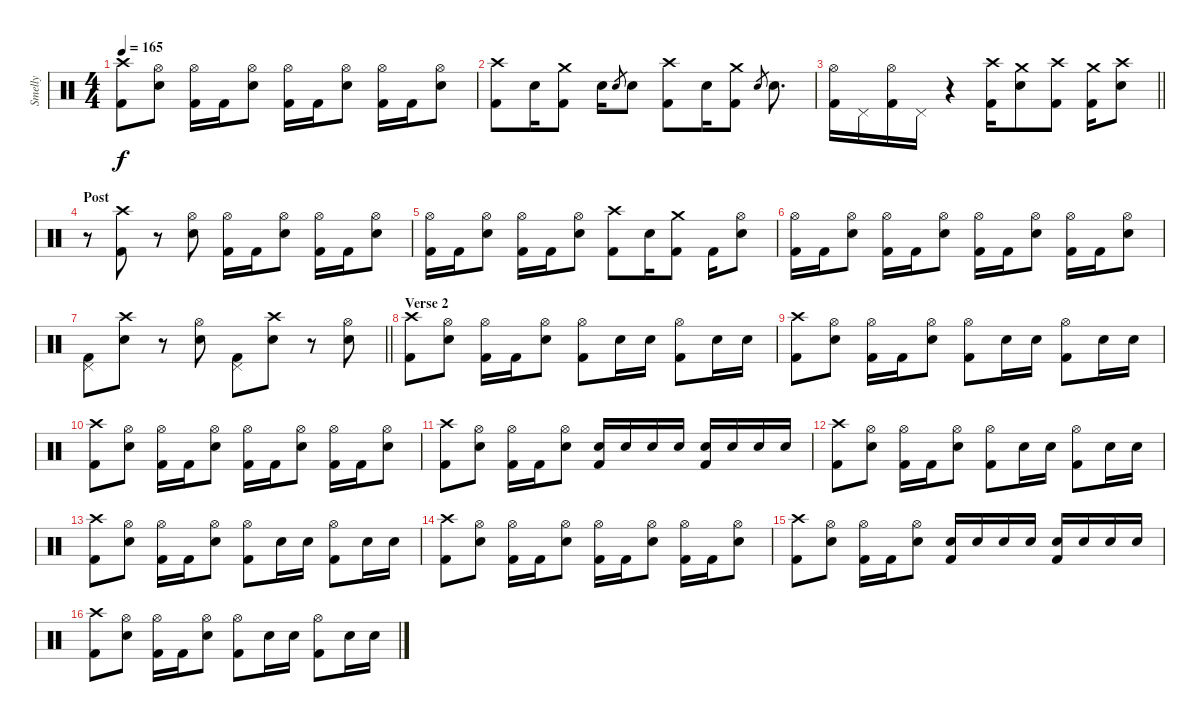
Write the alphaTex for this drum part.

\track ("Smelly" "Smelly") {instrument percussion}
\staff {score}
\articulation defaults
\ts (4 4)
\tempo 165
\clef neutral
\ks c
("Crash high (hit)" "Kick (hit) 2").8{dy f} ("Hi-Hat (open)" "Electric Snare (hit)").8 ("Hi-Hat (open)" "Kick (hit) 2").16 "Kick (hit) 2".16 ("Hi-Hat (open)" "Electric Snare (hit)").8 ("Hi-Hat (open)" "Kick (hit) 2").16 "Kick (hit) 2".16 ("Hi-Hat (open)" "Electric Snare (hit)").8 ("Hi-Hat (open)" "Kick (hit) 2").16 "Kick (hit) 2".16 ("Hi-Hat (open)" "Electric Snare (hit)").8 |
("Crash high (hit)" "Kick (hit) 2").8 "Electric Snare (hit)".16 ("Crash medium (hit)" "Kick (hit) 2").8 "Electric Snare (hit)".16 "Electric Snare (hit)".8{gr} "Electric Snare (hit)".8 ("Crash high (hit)" "Kick (hit) 2").8 "Electric Snare (hit)".16 ("Crash medium (hit)" "Kick (hit) 2").8 "Electric Snare (hit)".8{gr} "Electric Snare (hit)".8{d} |
\barLineRight lightlight
("Hi-Hat (open)" "Kick (hit) 2").16 "Pedal Hi-Hat (hit)".16 ("Hi-Hat (open)" "Kick (hit) 2").16 "Pedal Hi-Hat (hit)".16 r.4 ("Crash high (hit)" "Kick (hit) 2").16 ("Crash medium (hit)" "Electric Snare (hit)").8 ("Crash high (hit)" "Kick (hit) 2").8 ("Crash medium (hit)" "Kick (hit) 2").16 ("Crash high (hit)" "Electric Snare (hit)").8 |
\section ("" "Post")
r.8 ("Crash high (hit)" "Kick (hit) 2").8 r.8 ("Hi-Hat (open)" "Electric Snare (hit)").8 ("Hi-Hat (open)" "Kick (hit) 2").16 "Kick (hit) 2".16 ("Hi-Hat (open)" "Electric Snare (hit)").8 ("Hi-Hat (open)" "Kick (hit) 2").16 "Kick (hit) 2".16 ("Hi-Hat (open)" "Electric Snare (hit)").8 |
("Hi-Hat (open)" "Kick (hit) 2").16 "Kick (hit) 2".16 ("Hi-Hat (open)" "Electric Snare (hit)").8 ("Hi-Hat (open)" "Kick (hit) 2").16 "Kick (hit) 2".16 ("Hi-Hat (open)" "Electric Snare (hit)").8 ("Crash high (hit)" "Kick (hit) 2").8 "Electric Snare (hit)".16 ("Crash medium (hit)" "Kick (hit) 2").8 "Kick (hit) 2".16 ("Hi-Hat (open)" "Electric Snare (hit)").8 |
("Hi-Hat (open)" "Kick (hit) 2").16 "Kick (hit) 2".16 ("Hi-Hat (open)" "Electric Snare (hit)").8 ("Hi-Hat (open)" "Kick (hit) 2").16 "Kick (hit) 2".16 ("Hi-Hat (open)" "Electric Snare (hit)").8 ("Hi-Hat (open)" "Kick (hit) 2").16 "Kick (hit) 2".16 ("Hi-Hat (open)" "Electric Snare (hit)").8 ("Hi-Hat (open)" "Kick (hit) 2").16 "Kick (hit) 2".16 ("Hi-Hat (open)" "Electric Snare (hit)").8 |
\barLineRight lightlight
("Pedal Hi-Hat (hit)" "Kick (hit) 2").8 ("Crash high (hit)" "Electric Snare (hit)").8 r.8 ("Hi-Hat (open)" "Electric Snare (hit)").8 ("Pedal Hi-Hat (hit)" "Kick (hit) 2").8 ("Crash high (hit)" "Electric Snare (hit)").8 r.8 ("Hi-Hat (open)" "Electric Snare (hit)").8 |
\section ("" "Verse 2")
("Crash high (hit)" "Kick (hit) 2").8 ("Hi-Hat (open)" "Electric Snare (hit)").8 ("Hi-Hat (open)" "Kick (hit) 2").16 "Kick (hit) 2".16 ("Hi-Hat (open)" "Electric Snare (hit)").8 ("Hi-Hat (open)" "Kick (hit) 2").8 "Electric Snare (hit)".16 "Electric Snare (hit)".16 ("Hi-Hat (open)" "Kick (hit) 2").8 "Electric Snare (hit)".16 "Electric Snare (hit)".16 |
("Crash high (hit)" "Kick (hit) 2").8 ("Hi-Hat (open)" "Electric Snare (hit)").8 ("Hi-Hat (open)" "Kick (hit) 2").16 "Kick (hit) 2".16 ("Hi-Hat (open)" "Electric Snare (hit)").8 ("Hi-Hat (open)" "Kick (hit) 2").8 "Electric Snare (hit)".16 "Electric Snare (hit)".16 ("Hi-Hat (open)" "Kick (hit) 2").8 "Electric Snare (hit)".16 "Electric Snare (hit)".16 |
("Crash high (hit)" "Kick (hit) 2").8 ("Hi-Hat (open)" "Electric Snare (hit)").8 ("Hi-Hat (open)" "Kick (hit) 2").16 "Kick (hit) 2".16 ("Hi-Hat (open)" "Electric Snare (hit)").8 ("Hi-Hat (open)" "Kick (hit) 2").16 "Kick (hit) 2".16 ("Hi-Hat (open)" "Electric Snare (hit)").8 ("Hi-Hat (open)" "Kick (hit) 2").16 "Kick (hit) 2".16 ("Hi-Hat (open)" "Electric Snare (hit)").8 |
("Crash high (hit)" "Kick (hit) 2").8 ("Hi-Hat (open)" "Electric Snare (hit)").8 ("Hi-Hat (open)" "Kick (hit) 2").16 "Kick (hit) 2".16 ("Hi-Hat (open)" "Electric Snare (hit)").8 ("Electric Snare (hit)" "Kick (hit) 2").16 "Electric Snare (hit)".16 "Electric Snare (hit)".16 "Electric Snare (hit)".16 ("Electric Snare (hit)" "Kick (hit) 2").16 "Electric Snare (hit)".16 "Electric Snare (hit)".16 "Electric Snare (hit)".16 |
("Crash high (hit)" "Kick (hit) 2").8 ("Hi-Hat (open)" "Electric Snare (hit)").8 ("Hi-Hat (open)" "Kick (hit) 2").16 "Kick (hit) 2".16 ("Hi-Hat (open)" "Electric Snare (hit)").8 ("Hi-Hat (open)" "Kick (hit) 2").8 "Electric Snare (hit)".16 "Electric Snare (hit)".16 ("Hi-Hat (open)" "Kick (hit) 2").8 "Electric Snare (hit)".16 "Electric Snare (hit)".16 |
("Crash high (hit)" "Kick (hit) 2").8 ("Hi-Hat (open)" "Electric Snare (hit)").8 ("Hi-Hat (open)" "Kick (hit) 2").16 "Kick (hit) 2".16 ("Hi-Hat (open)" "Electric Snare (hit)").8 ("Hi-Hat (open)" "Kick (hit) 2").8 "Electric Snare (hit)".16 "Electric Snare (hit)".16 ("Hi-Hat (open)" "Kick (hit) 2").8 "Electric Snare (hit)".16 "Electric Snare (hit)".16 |
("Crash high (hit)" "Kick (hit) 2").8 ("Hi-Hat (open)" "Electric Snare (hit)").8 ("Hi-Hat (open)" "Kick (hit) 2").16 "Kick (hit) 2".16 ("Hi-Hat (open)" "Electric Snare (hit)").8 ("Hi-Hat (open)" "Kick (hit) 2").16 "Kick (hit) 2".16 ("Hi-Hat (open)" "Electric Snare (hit)").8 ("Hi-Hat (open)" "Kick (hit) 2").16 "Kick (hit) 2".16 ("Hi-Hat (open)" "Electric Snare (hit)").8 |
("Crash high (hit)" "Kick (hit) 2").8 ("Hi-Hat (open)" "Electric Snare (hit)").8 ("Hi-Hat (open)" "Kick (hit) 2").16 "Kick (hit) 2".16 ("Hi-Hat (open)" "Electric Snare (hit)").8 ("Electric Snare (hit)" "Kick (hit) 2").16 "Electric Snare (hit)".16 "Electric Snare (hit)".16 "Electric Snare (hit)".16 ("Electric Snare (hit)" "Kick (hit) 2").16 "Electric Snare (hit)".16 "Electric Snare (hit)".16 "Electric Snare (hit)".16 |
("Crash high (hit)" "Kick (hit) 2").8 ("Hi-Hat (open)" "Electric Snare (hit)").8 ("Hi-Hat (open)" "Kick (hit) 2").16 "Kick (hit) 2".16 ("Hi-Hat (open)" "Electric Snare (hit)").8 ("Hi-Hat (open)" "Kick (hit) 2").8 "Electric Snare (hit)".16 "Electric Snare (hit)".16 ("Hi-Hat (open)" "Kick (hit) 2").8 "Electric Snare (hit)".16 "Electric Snare (hit)".16
